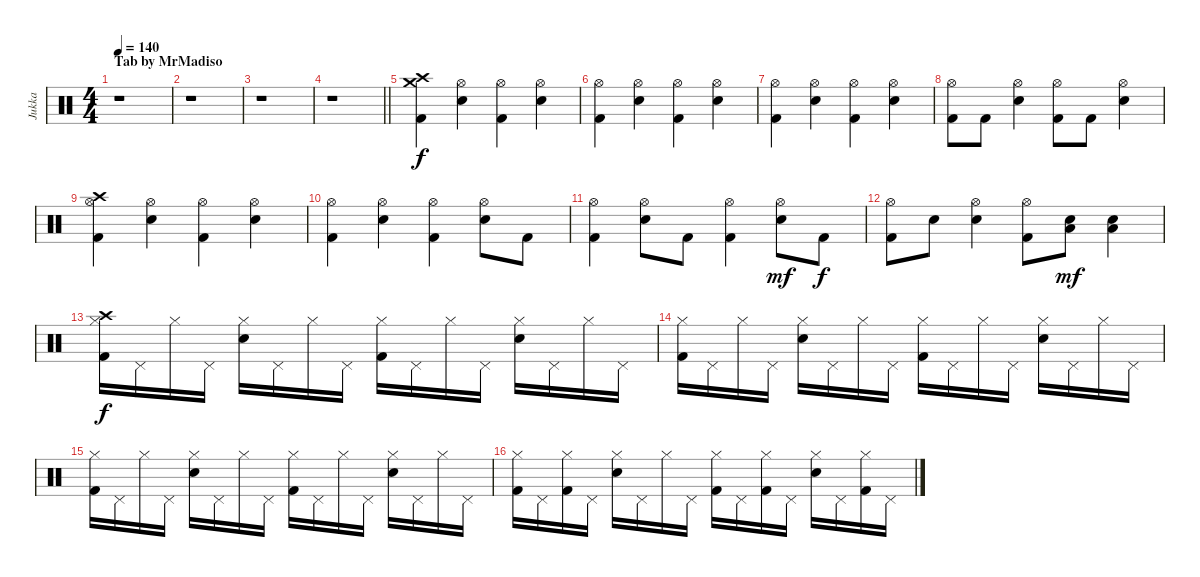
\track ("Jukka" "Jukka") {instrument percussion}
\staff {score}
\articulation defaults
\ts (4 4)
\section ("" "Tab by MrMadiso")
\tempo 140
\clef neutral
\ks c
r.1{dy f} |
r.1 |
r.1 |
\barLineRight lightlight
r.1 |
\ks aminor
("Crash medium (hit)" "Crash high (hit)" "Kick (hit) 2").4 ("Hi-Hat (open)" "Electric Snare (hit)").4 ("Hi-Hat (open)" "Kick (hit) 2").4 ("Hi-Hat (open)" "Electric Snare (hit)").4 |
("Hi-Hat (open)" "Kick (hit) 2").4 ("Hi-Hat (open)" "Electric Snare (hit)").4 ("Hi-Hat (open)" "Kick (hit) 2").4 ("Hi-Hat (open)" "Electric Snare (hit)").4 |
("Hi-Hat (open)" "Kick (hit) 2").4 ("Hi-Hat (open)" "Electric Snare (hit)").4 ("Hi-Hat (open)" "Kick (hit) 2").4 ("Hi-Hat (open)" "Electric Snare (hit)").4 |
("Hi-Hat (open)" "Kick (hit) 2").8 "Kick (hit) 2".8 ("Hi-Hat (open)" "Electric Snare (hit)").4 ("Hi-Hat (open)" "Kick (hit) 2").8 "Kick (hit) 2".8 ("Hi-Hat (open)" "Electric Snare (hit)").4 |
("Crash high (hit)" "Hi-Hat (open)" "Kick (hit) 2").4 ("Hi-Hat (open)" "Electric Snare (hit)").4 ("Hi-Hat (open)" "Kick (hit) 2").4 ("Hi-Hat (open)" "Electric Snare (hit)").4 |
("Hi-Hat (open)" "Kick (hit) 2").4 ("Hi-Hat (open)" "Electric Snare (hit)").4 ("Hi-Hat (open)" "Kick (hit) 2").4 ("Hi-Hat (open)" "Electric Snare (hit)").8 "Kick (hit) 2".8 |
("Hi-Hat (open)" "Kick (hit) 2").4 ("Hi-Hat (open)" "Electric Snare (hit)").8 "Kick (hit) 2".8 ("Hi-Hat (open)" "Kick (hit) 2").4 ("Hi-Hat (open)" "Electric Snare (hit)").8{dy mf} "Kick (hit) 2".8{dy f} |
("Hi-Hat (open)" "Kick (hit) 2").8 "Electric Snare (hit)".8 ("Hi-Hat (open)" "Electric Snare (hit)").4 ("Hi-Hat (open)" "Kick (hit) 2").8 ("Low Floor Tom (hit)" "Electric Snare (hit)").8{dy mf} ("Low Floor Tom (hit)" "Electric Snare (hit)").4 |
("Crash high (hit)" "Hi-Hat (closed)" "Kick (hit) 2").16{dy f} "Pedal Hi-Hat (hit)".16 "Hi-Hat (closed)".16 "Pedal Hi-Hat (hit)".16 ("Hi-Hat (closed)" "Electric Snare (hit)").16 "Pedal Hi-Hat (hit)".16 "Hi-Hat (closed)".16 "Pedal Hi-Hat (hit)".16 ("Hi-Hat (closed)" "Kick (hit) 2").16 "Pedal Hi-Hat (hit)".16 "Hi-Hat (closed)".16 "Pedal Hi-Hat (hit)".16 ("Hi-Hat (closed)" "Electric Snare (hit)").16 "Pedal Hi-Hat (hit)".16 "Hi-Hat (closed)".16 "Pedal Hi-Hat (hit)".16 |
("Hi-Hat (closed)" "Kick (hit) 2").16 "Pedal Hi-Hat (hit)".16 "Hi-Hat (closed)".16 "Pedal Hi-Hat (hit)".16 ("Hi-Hat (closed)" "Electric Snare (hit)").16 "Pedal Hi-Hat (hit)".16 "Hi-Hat (closed)".16 "Pedal Hi-Hat (hit)".16 ("Hi-Hat (closed)" "Kick (hit) 2").16 "Pedal Hi-Hat (hit)".16 "Hi-Hat (closed)".16 "Pedal Hi-Hat (hit)".16 ("Hi-Hat (closed)" "Electric Snare (hit)").16 "Pedal Hi-Hat (hit)".16 "Hi-Hat (closed)".16 "Pedal Hi-Hat (hit)".16 |
("Hi-Hat (closed)" "Kick (hit) 2").16 "Pedal Hi-Hat (hit)".16 "Hi-Hat (closed)".16 "Pedal Hi-Hat (hit)".16 ("Hi-Hat (closed)" "Electric Snare (hit)").16 "Pedal Hi-Hat (hit)".16 "Hi-Hat (closed)".16 "Pedal Hi-Hat (hit)".16 ("Hi-Hat (closed)" "Kick (hit) 2").16 "Pedal Hi-Hat (hit)".16 "Hi-Hat (closed)".16 "Pedal Hi-Hat (hit)".16 ("Hi-Hat (closed)" "Electric Snare (hit)").16 "Pedal Hi-Hat (hit)".16 "Hi-Hat (closed)".16 "Pedal Hi-Hat (hit)".16 |
("Hi-Hat (closed)" "Kick (hit) 2").16 "Pedal Hi-Hat (hit)".16 ("Hi-Hat (closed)" "Kick (hit) 2").16 "Pedal Hi-Hat (hit)".16 ("Hi-Hat (closed)" "Electric Snare (hit)").16 "Pedal Hi-Hat (hit)".16 "Hi-Hat (closed)".16 "Pedal Hi-Hat (hit)".16 ("Hi-Hat (closed)" "Kick (hit) 2").16 "Pedal Hi-Hat (hit)".16 ("Hi-Hat (closed)" "Kick (hit) 2").16 "Pedal Hi-Hat (hit)".16 ("Hi-Hat (closed)" "Electric Snare (hit)").16 "Pedal Hi-Hat (hit)".16 ("Hi-Hat (closed)" "Kick (hit) 2").16 "Pedal Hi-Hat (hit)".16
